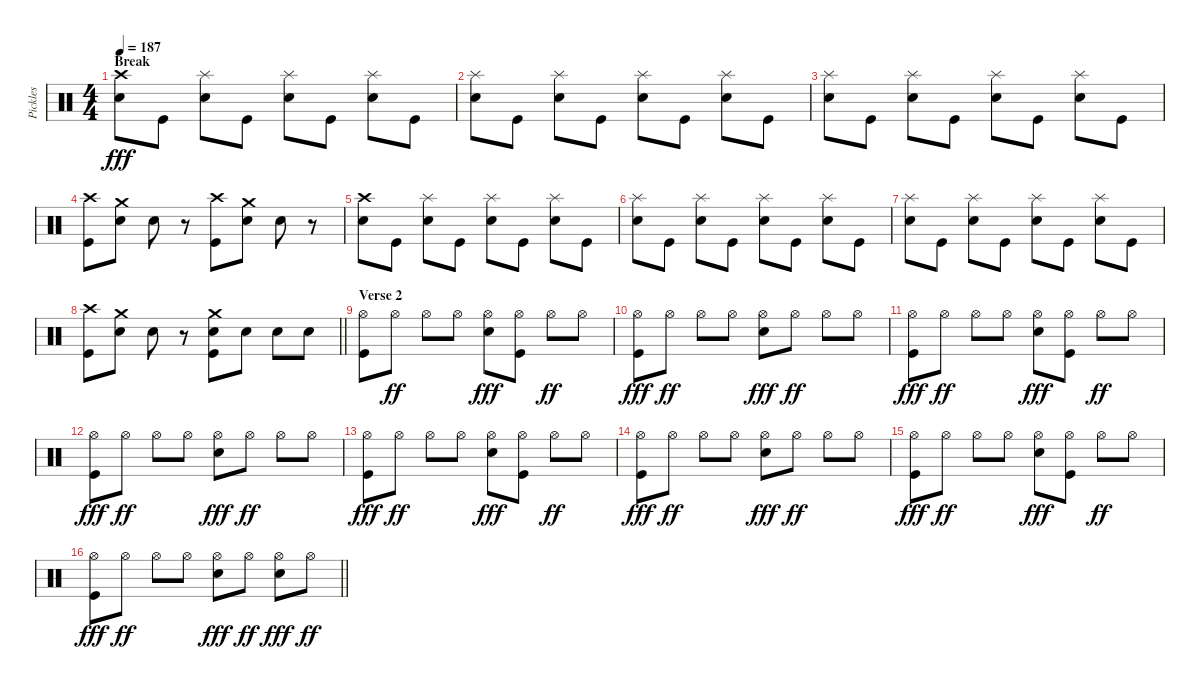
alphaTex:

\track ("Pickles" "Pickles") {instrument percussion}
\staff {score}
\articulation defaults
\ts (4 4)
\section ("" "Break")
\tempo 187
\clef neutral
\ks c
("Crash high (hit)" "Snare (hit) 2").8{dy fff} "Kick (hit)".8 ("Splash (hit)" "Snare (hit) 2").8 "Kick (hit)".8 ("Splash (hit)" "Snare (hit) 2").8 "Kick (hit)".8 ("Splash (hit)" "Snare (hit) 2").8 "Kick (hit)".8 |
("Splash (hit)" "Snare (hit) 2").8 "Kick (hit)".8 ("Splash (hit)" "Snare (hit) 2").8 "Kick (hit)".8 ("Splash (hit)" "Snare (hit) 2").8 "Kick (hit)".8 ("Splash (hit)" "Snare (hit) 2").8 "Kick (hit)".8 |
("Splash (hit)" "Snare (hit) 2").8 "Kick (hit)".8 ("Splash (hit)" "Snare (hit) 2").8 "Kick (hit)".8 ("Splash (hit)" "Snare (hit) 2").8 "Kick (hit)".8 ("Splash (hit)" "Snare (hit) 2").8 "Kick (hit)".8 |
("Crash high (hit)" "Kick (hit)").8 ("Crash medium (hit)" "Snare (hit) 2").8 "Snare (hit) 2".8 r.8 ("Crash high (hit)" "Kick (hit)").8 ("Crash medium (hit)" "Snare (hit) 2").8 "Snare (hit) 2".8 r.8 |
("Crash high (hit)" "Snare (hit) 2").8 "Kick (hit)".8 ("Splash (hit)" "Snare (hit) 2").8 "Kick (hit)".8 ("Splash (hit)" "Snare (hit) 2").8 "Kick (hit)".8 ("Splash (hit)" "Snare (hit) 2").8 "Kick (hit)".8 |
("Splash (hit)" "Snare (hit) 2").8 "Kick (hit)".8 ("Splash (hit)" "Snare (hit) 2").8 "Kick (hit)".8 ("Splash (hit)" "Snare (hit) 2").8 "Kick (hit)".8 ("Splash (hit)" "Snare (hit) 2").8 "Kick (hit)".8 |
("Splash (hit)" "Snare (hit) 2").8 "Kick (hit)".8 ("Splash (hit)" "Snare (hit) 2").8 "Kick (hit)".8 ("Splash (hit)" "Snare (hit) 2").8 "Kick (hit)".8 ("Splash (hit)" "Snare (hit) 2").8 "Kick (hit)".8 |
\barLineRight lightlight
("Crash high (hit)" "Kick (hit)").8 ("Crash medium (hit)" "Snare (hit) 2").8 "Snare (hit) 2".8 r.8 ("Crash medium (hit)" "Snare (hit) 2" "Kick (hit)").8 "Snare (hit) 2".8 "Snare (hit) 2".8 "Snare (hit) 2".8 |
\section ("" "Verse 2")
("Hi-Hat (open)" "Kick (hit)").8 "Hi-Hat (open)".8{dy ff} "Hi-Hat (open)".8 "Hi-Hat (open)".8 ("Hi-Hat (open)" "Snare (hit) 2").8{dy fff} ("Hi-Hat (open)" "Kick (hit)").8 "Hi-Hat (open)".8{dy ff} "Hi-Hat (open)".8 |
("Hi-Hat (open)" "Kick (hit)").8{dy fff} "Hi-Hat (open)".8{dy ff} "Hi-Hat (open)".8 "Hi-Hat (open)".8 ("Hi-Hat (open)" "Snare (hit) 2").8{dy fff} "Hi-Hat (open)".8{dy ff} "Hi-Hat (open)".8 "Hi-Hat (open)".8 |
("Hi-Hat (open)" "Kick (hit)").8{dy fff} "Hi-Hat (open)".8{dy ff} "Hi-Hat (open)".8 "Hi-Hat (open)".8 ("Hi-Hat (open)" "Snare (hit) 2").8{dy fff} ("Hi-Hat (open)" "Kick (hit)").8 "Hi-Hat (open)".8{dy ff} "Hi-Hat (open)".8 |
("Hi-Hat (open)" "Kick (hit)").8{dy fff} "Hi-Hat (open)".8{dy ff} "Hi-Hat (open)".8 "Hi-Hat (open)".8 ("Hi-Hat (open)" "Snare (hit) 2").8{dy fff} "Hi-Hat (open)".8{dy ff} "Hi-Hat (open)".8 "Hi-Hat (open)".8 |
("Hi-Hat (open)" "Kick (hit)").8{dy fff} "Hi-Hat (open)".8{dy ff} "Hi-Hat (open)".8 "Hi-Hat (open)".8 ("Hi-Hat (open)" "Snare (hit) 2").8{dy fff} ("Hi-Hat (open)" "Kick (hit)").8 "Hi-Hat (open)".8{dy ff} "Hi-Hat (open)".8 |
("Hi-Hat (open)" "Kick (hit)").8{dy fff} "Hi-Hat (open)".8{dy ff} "Hi-Hat (open)".8 "Hi-Hat (open)".8 ("Hi-Hat (open)" "Snare (hit) 2").8{dy fff} "Hi-Hat (open)".8{dy ff} "Hi-Hat (open)".8 "Hi-Hat (open)".8 |
("Hi-Hat (open)" "Kick (hit)").8{dy fff} "Hi-Hat (open)".8{dy ff} "Hi-Hat (open)".8 "Hi-Hat (open)".8 ("Hi-Hat (open)" "Snare (hit) 2").8{dy fff} ("Hi-Hat (open)" "Kick (hit)").8 "Hi-Hat (open)".8{dy ff} "Hi-Hat (open)".8 |
\barLineRight lightlight
("Hi-Hat (open)" "Kick (hit)").8{dy fff} "Hi-Hat (open)".8{dy ff} "Hi-Hat (open)".8 "Hi-Hat (open)".8 ("Hi-Hat (open)" "Snare (hit) 2").8{dy fff} "Hi-Hat (open)".8{dy ff} ("Hi-Hat (open)" "Snare (hit) 2").8{dy fff} "Hi-Hat (open)".8{dy ff}
